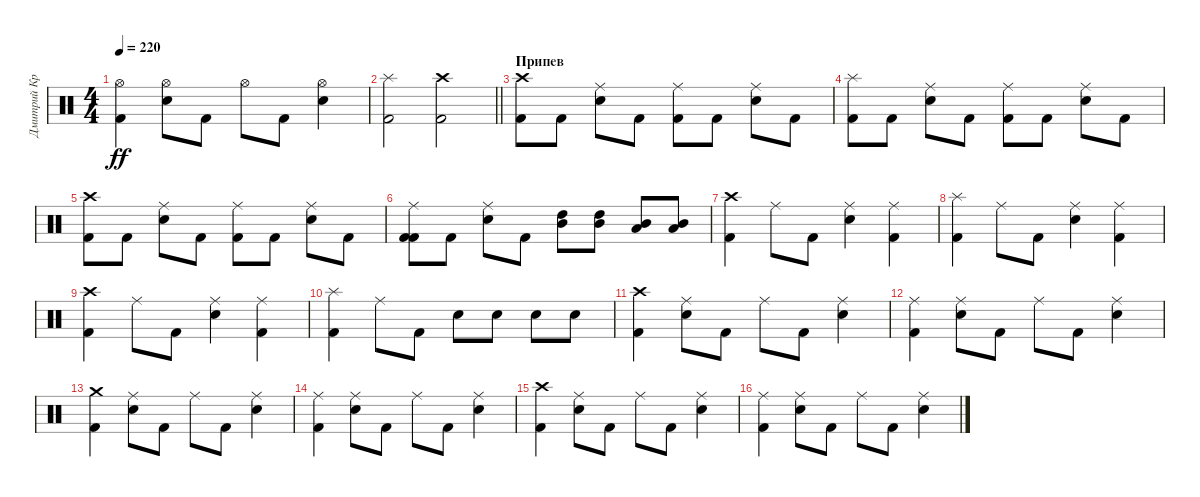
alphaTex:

\track ("Дмитрий Кривенков" "Дмитрий Кр") {instrument percussion}
\staff {score}
\articulation defaults
\ts (4 4)
\tempo 220
\clef neutral
\ks c
("Kick (hit) 2" "Hi-Hat (open)").4{dy ff} ("Snare (hit) 2" "Hi-Hat (open)").8 "Kick (hit) 2".8 "Hi-Hat (open)".8 "Kick (hit) 2".8 ("Hi-Hat (open)" "Snare (hit) 2").4 |
\barLineRight lightlight
("Splash (hit)" "Kick (hit) 2").2 ("Crash high (hit)" "Kick (hit) 2").2 |
\section ("" "Припев")
("Crash high (hit)" "Kick (hit) 2").8 "Kick (hit) 2".8 ("Ride (middle)" "Snare (hit) 2").8 "Kick (hit) 2".8 ("Ride (middle)" "Kick (hit) 2").8 "Kick (hit) 2".8 ("Snare (hit) 2" "Ride (middle)").8 "Kick (hit) 2".8 |
("Kick (hit) 2" "Splash (hit)").8 "Kick (hit) 2".8 ("Snare (hit) 2" "Ride (middle)").8 "Kick (hit) 2".8 ("Kick (hit) 2" "Ride (middle)").8 "Kick (hit) 2".8 ("Snare (hit) 2" "Ride (middle)").8 "Kick (hit) 2".8 |
("Crash high (hit)" "Kick (hit) 2").8 "Kick (hit) 2".8 ("Ride (middle)" "Snare (hit) 2").8 "Kick (hit) 2".8 ("Ride (middle)" "Kick (hit) 2").8 "Kick (hit) 2".8 ("Snare (hit) 2" "Ride (middle)").8 "Kick (hit) 2".8 |
("Ride (middle)" "Kick (hit) 2" "Kick (hit) 2").8 "Kick (hit) 2".8 ("Ride (middle)" "Snare (hit) 2").8 "Kick (hit) 2".8 ("Mid Tom (hit)" "High Tom (hit)").8 ("Mid Tom (hit)" "High Tom (hit)").8 ("Low Tom (hit)" "Mid Tom (hit)").8 ("Low Tom (hit)" "Mid Tom (hit)").8 |
("Kick (hit) 2" "Crash high (hit)").4 "Ride (middle)".8 "Kick (hit) 2".8 ("Snare (hit) 2" "Ride (middle)").4 ("Kick (hit) 2" "Ride (middle)").4 |
("Splash (hit)" "Kick (hit) 2").4 "Ride (middle)".8 "Kick (hit) 2".8 ("Ride (middle)" "Snare (hit) 2").4 ("Ride (middle)" "Kick (hit) 2").4 |
("Kick (hit) 2" "Crash high (hit)").4 "Ride (middle)".8 "Kick (hit) 2".8 ("Snare (hit) 2" "Ride (middle)").4 ("Kick (hit) 2" "Ride (middle)").4 |
("Splash (hit)" "Kick (hit) 2").4 "Ride (middle)".8 "Kick (hit) 2".8 "Snare (hit) 2".8 "Snare (hit) 2".8 "Snare (hit) 2".8 "Snare (hit) 2".8 |
("Crash high (hit)" "Kick (hit) 2").4 ("Ride (middle)" "Snare (hit) 2").8 "Kick (hit) 2".8 "Ride (middle)".8 "Kick (hit) 2".8 ("Ride (middle)" "Snare (hit) 2").4 |
("Kick (hit) 2" "Ride (middle)").4 ("Snare (hit) 2" "Ride (middle)").8 "Kick (hit) 2".8 "Ride (middle)".8 "Kick (hit) 2".8 ("Snare (hit) 2" "Ride (middle)").4 |
("Crash medium (hit)" "Kick (hit) 2").4 ("Ride (middle)" "Snare (hit) 2").8 "Kick (hit) 2".8 "Ride (middle)".8 "Kick (hit) 2".8 ("Ride (middle)" "Snare (hit) 2").4 |
("Kick (hit) 2" "Ride (middle)").4 ("Snare (hit) 2" "Ride (middle)").8 "Kick (hit) 2".8 "Ride (middle)".8 "Kick (hit) 2".8 ("Snare (hit) 2" "Ride (middle)").4 |
("Crash high (hit)" "Kick (hit) 2").4 ("Ride (middle)" "Snare (hit) 2").8 "Kick (hit) 2".8 "Ride (middle)".8 "Kick (hit) 2".8 ("Ride (middle)" "Snare (hit) 2").4 |
("Kick (hit) 2" "Ride (middle)").4 ("Snare (hit) 2" "Ride (middle)").8 "Kick (hit) 2".8 "Ride (middle)".8 "Kick (hit) 2".8 ("Snare (hit) 2" "Ride (middle)").4
